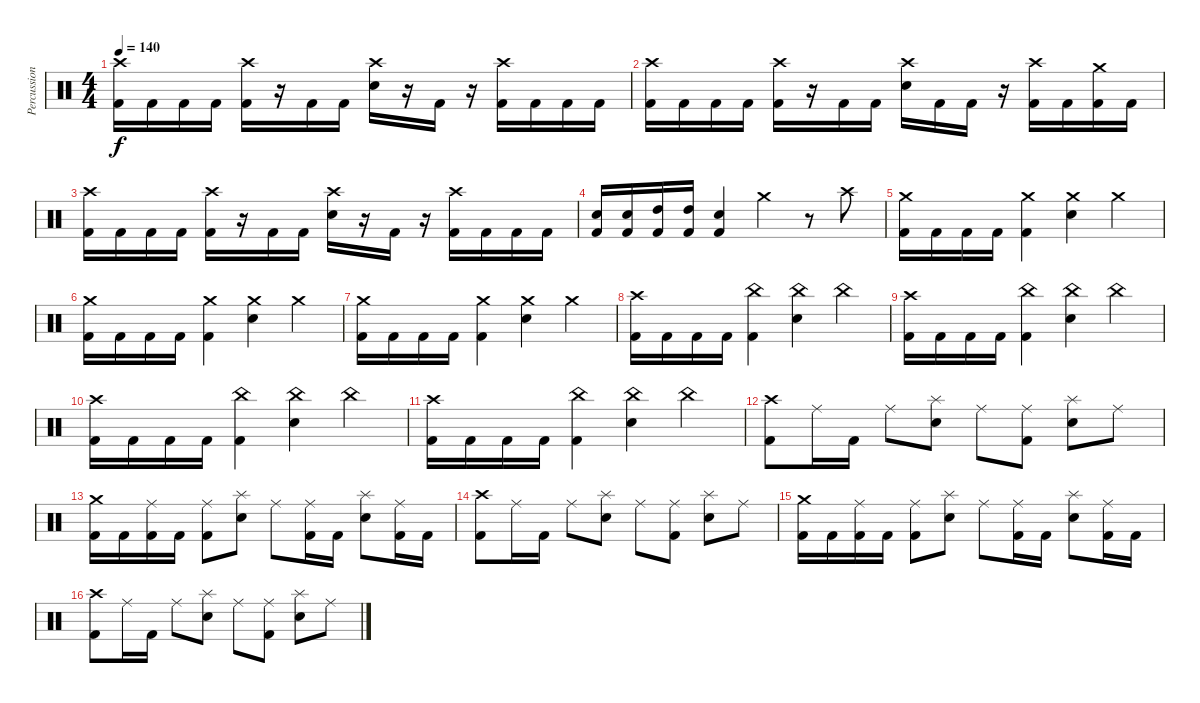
\track ("Percussion" "Percussion") {instrument percussion}
\staff {score}
\articulation defaults
\ts (4 4)
\tempo 140
\clef neutral
\ks c
("Crash high (hit)" "Kick (hit) 2").16{dy f} "Kick (hit) 2".16 "Kick (hit) 2".16 "Kick (hit) 2".16 ("Crash high (hit)" "Kick (hit) 2").16 r.16 "Kick (hit) 2".16 "Kick (hit) 2".16 ("Crash high (hit)" "Electric Snare (hit)").16 r.16 "Kick (hit) 2".16 r.16 ("Crash high (hit)" "Kick (hit) 2").16 "Kick (hit) 2".16 "Kick (hit) 2".16 "Kick (hit) 2".16 |
("Crash high (hit)" "Kick (hit) 2").16 "Kick (hit) 2".16 "Kick (hit) 2".16 "Kick (hit) 2".16 ("Crash high (hit)" "Kick (hit) 2").16 r.16 "Kick (hit) 2".16 "Kick (hit) 2".16 ("Crash high (hit)" "Electric Snare (hit)").16 "Kick (hit) 2".16 "Kick (hit) 2".16 r.16 ("Crash high (hit)" "Kick (hit) 2").16 "Kick (hit) 2".16 ("Crash medium (hit)" "Kick (hit) 2").16 "Kick (hit) 2".16 |
("Crash high (hit)" "Kick (hit) 2").16 "Kick (hit) 2".16 "Kick (hit) 2".16 "Kick (hit) 2".16 ("Crash high (hit)" "Kick (hit) 2").16 r.16 "Kick (hit) 2".16 "Kick (hit) 2".16 ("Crash high (hit)" "Electric Snare (hit)").16 r.16 "Kick (hit) 2".16 r.16 ("Crash high (hit)" "Kick (hit) 2").16 "Kick (hit) 2".16 "Kick (hit) 2".16 "Kick (hit) 2".16 |
("Electric Snare (hit)" "Kick (hit) 2").16 ("Electric Snare (hit)" "Kick (hit) 2").16 ("High Tom (hit)" "Kick (hit) 2").16 ("High Tom (hit)" "Kick (hit) 2").16 ("Electric Snare (hit)" "Kick (hit) 2").4 "Crash medium (hit)".4 r.8 "Crash high (hit)".8 |
("Crash medium (hit)" "Kick (hit) 2").16 "Kick (hit) 2".16 "Kick (hit) 2".16 "Kick (hit) 2".16 ("Crash medium (hit)" "Kick (hit) 2").4 ("Crash medium (hit)" "Electric Snare (hit)").4 "Crash medium (hit)".4 |
("Crash medium (hit)" "Kick (hit) 2").16 "Kick (hit) 2".16 "Kick (hit) 2".16 "Kick (hit) 2".16 ("Crash medium (hit)" "Kick (hit) 2").4 ("Crash medium (hit)" "Electric Snare (hit)").4 "Crash medium (hit)".4 |
("Crash medium (hit)" "Kick (hit) 2").16 "Kick (hit) 2".16 "Kick (hit) 2".16 "Kick (hit) 2".16 ("Crash medium (hit)" "Kick (hit) 2").4 ("Crash medium (hit)" "Electric Snare (hit)").4 "Crash medium (hit)".4 |
("Crash high (hit)" "Kick (hit) 2").16 "Kick (hit) 2".16 "Kick (hit) 2".16 "Kick (hit) 2".16 ("China (hit)" "Kick (hit) 2").4 ("China (hit)" "Electric Snare (hit)").4 "China (hit)".4 |
("Crash high (hit)" "Kick (hit) 2").16 "Kick (hit) 2".16 "Kick (hit) 2".16 "Kick (hit) 2".16 ("China (hit)" "Kick (hit) 2").4 ("China (hit)" "Electric Snare (hit)").4 "China (hit)".4 |
("Crash high (hit)" "Kick (hit) 2").16 "Kick (hit) 2".16 "Kick (hit) 2".16 "Kick (hit) 2".16 ("China (hit)" "Kick (hit) 2").4 ("China (hit)" "Electric Snare (hit)").4 "China (hit)".4 |
("Crash high (hit)" "Kick (hit) 2").16 "Kick (hit) 2".16 "Kick (hit) 2".16 "Kick (hit) 2".16 ("China (hit)" "Kick (hit) 2").4 ("China (hit)" "Electric Snare (hit)").4 "China (hit)".4 |
("Crash high (hit)" "Kick (hit) 2").8 "Ride (middle)".16 "Kick (hit) 2".16 "Ride (middle)".8 ("Splash (hit)" "Electric Snare (hit)").8 "Ride (middle)".8 ("Ride (middle)" "Kick (hit) 2").8 ("Splash (hit)" "Electric Snare (hit)").8 "Ride (middle)".8 |
("Crash medium (hit)" "Kick (hit) 2").16 "Kick (hit) 2".16 ("Ride (middle)" "Kick (hit) 2").16 "Kick (hit) 2".16 ("Ride (middle)" "Kick (hit) 2").8 ("Splash (hit)" "Electric Snare (hit)").8 "Ride (middle)".8 ("Ride (middle)" "Kick (hit) 2").16 "Kick (hit) 2".16 ("Splash (hit)" "Electric Snare (hit)").8 ("Ride (middle)" "Kick (hit) 2").16 "Kick (hit) 2".16 |
("Crash high (hit)" "Kick (hit) 2").8 "Ride (middle)".16 "Kick (hit) 2".16 "Ride (middle)".8 ("Splash (hit)" "Electric Snare (hit)").8 "Ride (middle)".8 ("Ride (middle)" "Kick (hit) 2").8 ("Splash (hit)" "Electric Snare (hit)").8 "Ride (middle)".8 |
("Crash medium (hit)" "Kick (hit) 2").16 "Kick (hit) 2".16 ("Ride (middle)" "Kick (hit) 2").16 "Kick (hit) 2".16 ("Ride (middle)" "Kick (hit) 2").8 ("Splash (hit)" "Electric Snare (hit)").8 "Ride (middle)".8 ("Ride (middle)" "Kick (hit) 2").16 "Kick (hit) 2".16 ("Splash (hit)" "Electric Snare (hit)").8 ("Ride (middle)" "Kick (hit) 2").16 "Kick (hit) 2".16 |
("Crash high (hit)" "Kick (hit) 2").8 "Ride (middle)".16 "Kick (hit) 2".16 "Ride (middle)".8 ("Splash (hit)" "Electric Snare (hit)").8 "Ride (middle)".8 ("Ride (middle)" "Kick (hit) 2").8 ("Splash (hit)" "Electric Snare (hit)").8 "Ride (middle)".8
